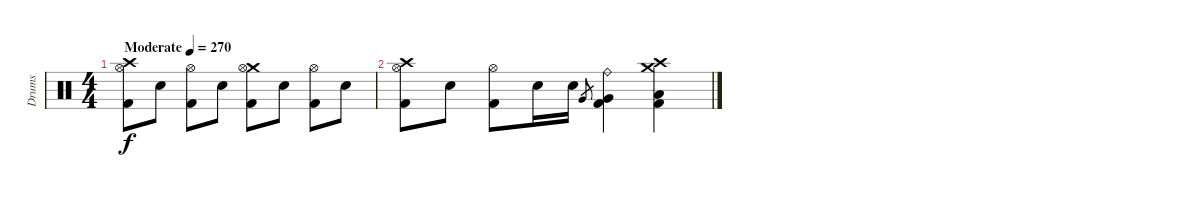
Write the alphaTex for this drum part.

\track ("Drums" "Drums") {instrument percussion}
\staff {score}
\articulation defaults
\ts (4 4)
\tempo (270 "Moderate")
\clef neutral
\ks c
("Crash high (hit)" "Hi-Hat (open)" "Kick (hit) 2").8{dy f} "Snare (hit) 2".8 ("Hi-Hat (open)" "Kick (hit) 2").8 "Snare (hit) 2".8 ("Crash medium (hit)" "Hi-Hat (open)" "Kick (hit) 2").8 "Snare (hit) 2".8 ("Hi-Hat (open)" "Kick (hit) 2").8 "Snare (hit) 2".8 |
("Crash high (hit)" "Hi-Hat (open)" "Kick (hit) 2").8 "Snare (hit) 2".8 ("Hi-Hat (open)" "Kick (hit) 2").8 "Snare (hit) 2".16 "Snare (hit) 2".16 "Very Low Tom (hit)".8{gr} ("Ride (bell)" "Very Low Tom (hit)" "Kick (hit) 2").4 ("Crash high (hit)" "Crash medium (hit)" "Low Floor Tom (hit)" "Kick (hit) 2").4
